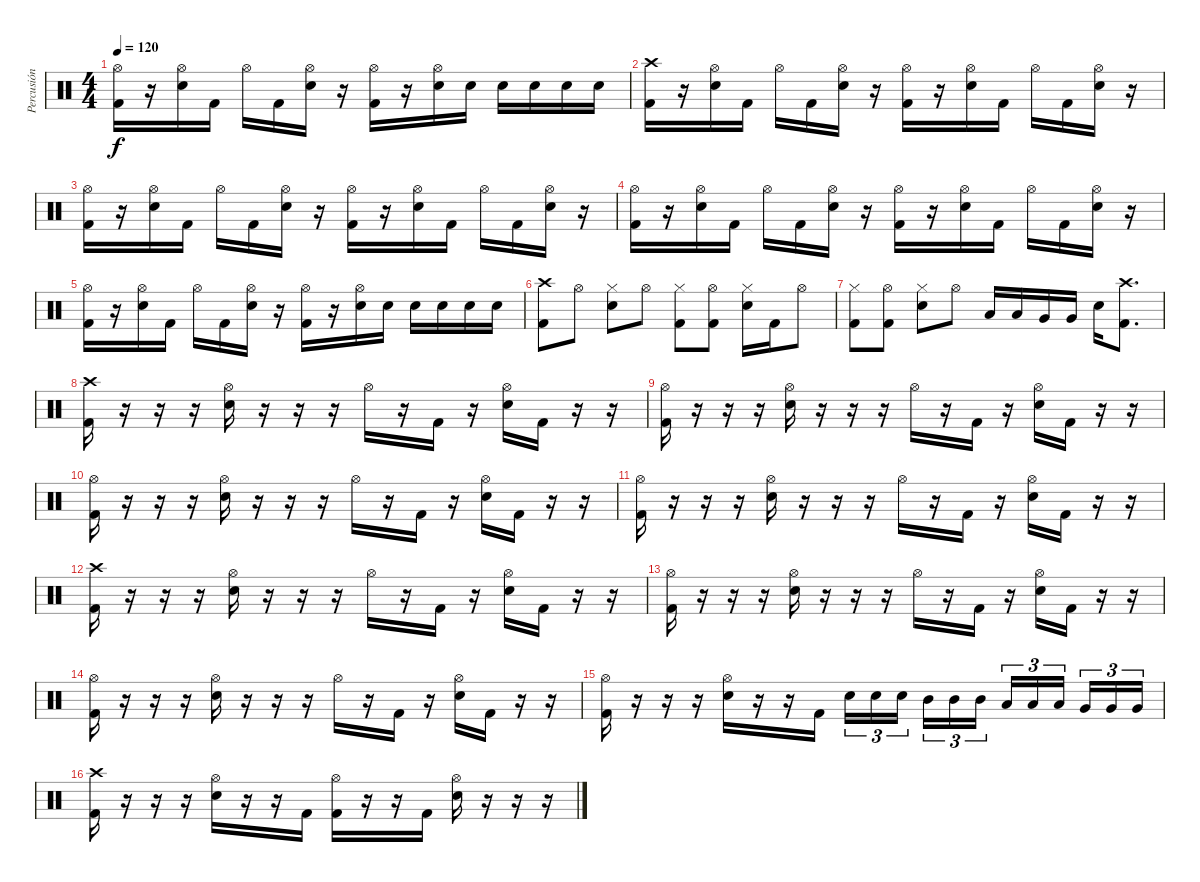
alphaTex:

\track ("Percusión" "Percusión") {instrument percussion}
\staff {score}
\articulation defaults
\ts (4 4)
\tempo 120
\clef neutral
\ks c
("Hi-Hat (open)" "Kick (hit) 2").16{dy f} r.16 ("Hi-Hat (open)" "Electric Snare (hit)").16 "Kick (hit) 2".16 "Hi-Hat (open)".16 "Kick (hit) 2".16 ("Hi-Hat (open)" "Electric Snare (hit)").16 r.16 ("Hi-Hat (open)" "Kick (hit) 2").16 r.16 ("Hi-Hat (open)" "Electric Snare (hit)").16 "Electric Snare (hit)".16 "Electric Snare (hit)".16 "Electric Snare (hit)".16 "Electric Snare (hit)".16 "Electric Snare (hit)".16 |
("Crash high (hit)" "Kick (hit) 2").16 r.16 ("Hi-Hat (open)" "Electric Snare (hit)").16 "Kick (hit) 2".16 "Hi-Hat (open)".16 "Kick (hit) 2".16 ("Hi-Hat (open)" "Electric Snare (hit)").16 r.16 ("Hi-Hat (open)" "Kick (hit) 2").16 r.16 ("Hi-Hat (open)" "Electric Snare (hit)").16 "Kick (hit) 2".16 "Hi-Hat (open)".16 "Kick (hit) 2".16 ("Hi-Hat (open)" "Electric Snare (hit)").16 r.16 |
("Hi-Hat (open)" "Kick (hit) 2").16 r.16 ("Hi-Hat (open)" "Electric Snare (hit)").16 "Kick (hit) 2".16 "Hi-Hat (open)".16 "Kick (hit) 2".16 ("Hi-Hat (open)" "Electric Snare (hit)").16 r.16 ("Hi-Hat (open)" "Kick (hit) 2").16 r.16 ("Hi-Hat (open)" "Electric Snare (hit)").16 "Kick (hit) 2".16 "Hi-Hat (open)".16 "Kick (hit) 2".16 ("Hi-Hat (open)" "Electric Snare (hit)").16 r.16 |
("Hi-Hat (open)" "Kick (hit) 2").16 r.16 ("Hi-Hat (open)" "Electric Snare (hit)").16 "Kick (hit) 2".16 "Hi-Hat (open)".16 "Kick (hit) 2".16 ("Hi-Hat (open)" "Electric Snare (hit)").16 r.16 ("Hi-Hat (open)" "Kick (hit) 2").16 r.16 ("Hi-Hat (open)" "Electric Snare (hit)").16 "Kick (hit) 2".16 "Hi-Hat (open)".16 "Kick (hit) 2".16 ("Hi-Hat (open)" "Electric Snare (hit)").16 r.16 |
("Hi-Hat (open)" "Kick (hit) 2").16 r.16 ("Hi-Hat (open)" "Electric Snare (hit)").16 "Kick (hit) 2".16 "Hi-Hat (open)".16 "Kick (hit) 2".16 ("Hi-Hat (open)" "Electric Snare (hit)").16 r.16 ("Hi-Hat (open)" "Kick (hit) 2").16 r.16 ("Hi-Hat (open)" "Electric Snare (hit)").16 "Electric Snare (hit)".16 "Electric Snare (hit)".16 "Electric Snare (hit)".16 "Electric Snare (hit)".16 "Electric Snare (hit)".16 |
("Crash high (hit)" "Kick (hit) 2").8 "Hi-Hat (open)".8 ("Hi-Hat (closed)" "Electric Snare (hit)").8 "Hi-Hat (open)".8 ("Hi-Hat (closed)" "Kick (hit) 2").8 ("Hi-Hat (open)" "Kick (hit) 2").8 ("Hi-Hat (closed)" "Electric Snare (hit)").16 "Kick (hit) 2".16 "Hi-Hat (open)".8 |
("Hi-Hat (closed)" "Kick (hit) 2").8 ("Hi-Hat (open)" "Kick (hit) 2").8 ("Hi-Hat (closed)" "Electric Snare (hit)").8 "Hi-Hat (open)".8 "Low Tom (hit)".16 "Low Tom (hit)".16 "Very Low Tom (hit)".16 "Very Low Tom (hit)".16 "Electric Snare (hit)".16 ("Crash high (hit)" "Kick (hit) 2").8{d} |
("Crash high (hit)" "Kick (hit) 2").16 r.16 r.16 r.16 ("Hi-Hat (open)" "Electric Snare (hit)").16 r.16 r.16 r.16 "Hi-Hat (open)".16 r.16 "Kick (hit) 2".16 r.16 ("Hi-Hat (open)" "Electric Snare (hit)").16 "Kick (hit) 2".16 r.16 r.16 |
("Hi-Hat (open)" "Kick (hit) 2").16 r.16 r.16 r.16 ("Hi-Hat (open)" "Electric Snare (hit)").16 r.16 r.16 r.16 "Hi-Hat (open)".16 r.16 "Kick (hit) 2".16 r.16 ("Hi-Hat (open)" "Electric Snare (hit)").16 "Kick (hit) 2".16 r.16 r.16 |
("Hi-Hat (open)" "Kick (hit) 2").16 r.16 r.16 r.16 ("Hi-Hat (open)" "Electric Snare (hit)").16 r.16 r.16 r.16 "Hi-Hat (open)".16 r.16 "Kick (hit) 2".16 r.16 ("Hi-Hat (open)" "Electric Snare (hit)").16 "Kick (hit) 2".16 r.16 r.16 |
("Hi-Hat (open)" "Kick (hit) 2").16 r.16 r.16 r.16 ("Hi-Hat (open)" "Electric Snare (hit)").16 r.16 r.16 r.16 "Hi-Hat (open)".16 r.16 "Kick (hit) 2".16 r.16 ("Hi-Hat (open)" "Electric Snare (hit)").16 "Kick (hit) 2".16 r.16 r.16 |
("Crash high (hit)" "Kick (hit) 2").16 r.16 r.16 r.16 ("Hi-Hat (open)" "Electric Snare (hit)").16 r.16 r.16 r.16 "Hi-Hat (open)".16 r.16 "Kick (hit) 2".16 r.16 ("Hi-Hat (open)" "Electric Snare (hit)").16 "Kick (hit) 2".16 r.16 r.16 |
("Hi-Hat (open)" "Kick (hit) 2").16 r.16 r.16 r.16 ("Hi-Hat (open)" "Electric Snare (hit)").16 r.16 r.16 r.16 "Hi-Hat (open)".16 r.16 "Kick (hit) 2".16 r.16 ("Hi-Hat (open)" "Electric Snare (hit)").16 "Kick (hit) 2".16 r.16 r.16 |
("Hi-Hat (open)" "Kick (hit) 2").16 r.16 r.16 r.16 ("Hi-Hat (open)" "Electric Snare (hit)").16 r.16 r.16 r.16 "Hi-Hat (open)".16 r.16 "Kick (hit) 2".16 r.16 ("Hi-Hat (open)" "Electric Snare (hit)").16 "Kick (hit) 2".16 r.16 r.16 |
("Hi-Hat (open)" "Kick (hit) 2").16 r.16 r.16 r.16 ("Hi-Hat (open)" "Electric Snare (hit)").16 r.16 r.16 "Kick (hit) 2".16 "Electric Snare (hit)".16{tu (3 2)} "Electric Snare (hit)".16{tu (3 2)} "Electric Snare (hit)".16{tu (3 2) beam splitsecondary} "Mid Tom (hit)".16{tu (3 2)} "Mid Tom (hit)".16{tu (3 2)} "Mid Tom (hit)".16{tu (3 2)} "Low Tom (hit)".16{tu (3 2)} "Low Tom (hit)".16{tu (3 2)} "Low Tom (hit)".16{tu (3 2) beam splitsecondary} "Very Low Tom (hit)".16{tu (3 2)} "Very Low Tom (hit)".16{tu (3 2)} "Very Low Tom (hit)".16{tu (3 2)} |
("Crash high (hit)" "Kick (hit) 2").16 r.16 r.16 r.16 ("Hi-Hat (open)" "Electric Snare (hit)").16 r.16 r.16 "Kick (hit) 2".16 ("Hi-Hat (open)" "Kick (hit) 2").16 r.16 r.16 "Kick (hit) 2".16 ("Hi-Hat (open)" "Electric Snare (hit)").16 r.16 r.16 r.16
